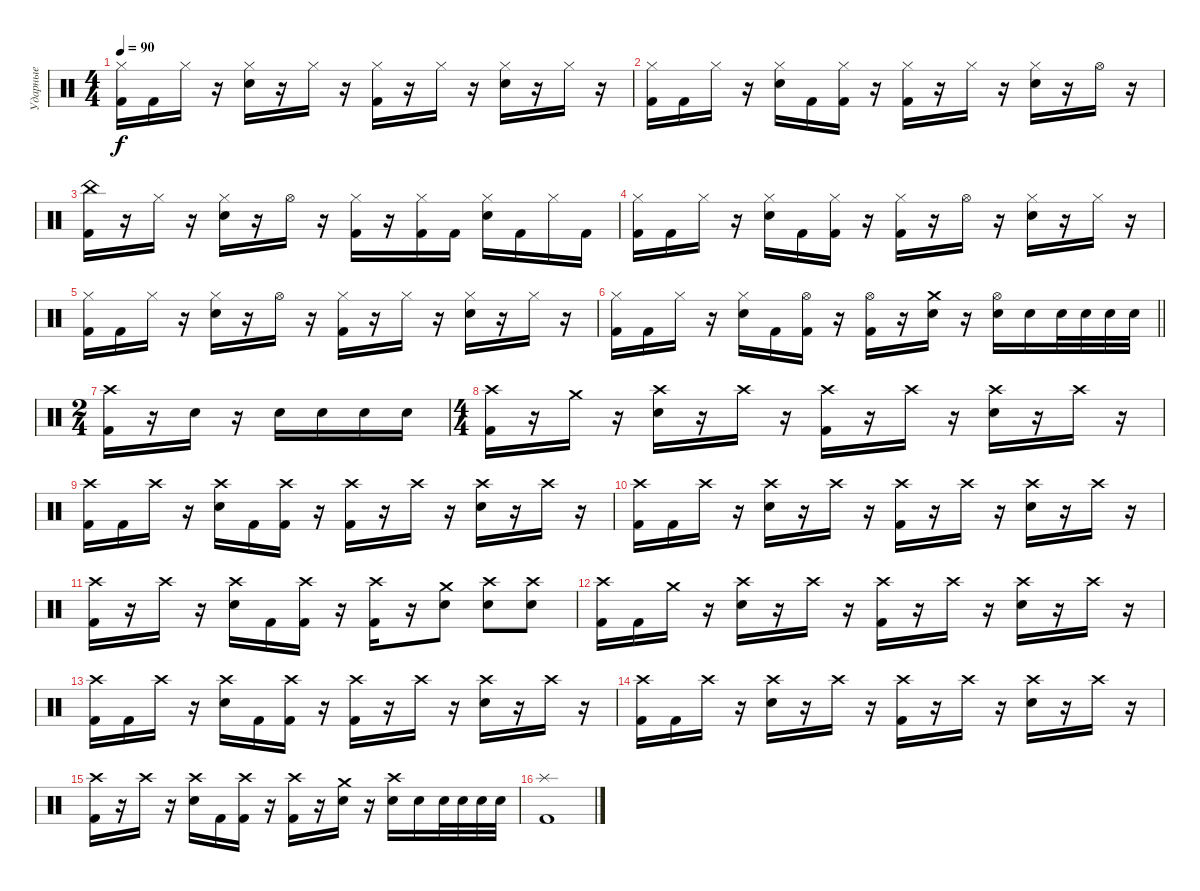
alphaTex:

\track ("Ударные" "Ударные") {instrument percussion}
\staff {score}
\articulation defaults
\ts (4 4)
\tempo 90
\clef neutral
\ks c
("Hi-Hat (closed)" "Kick (hit) 2").16{dy f} "Kick (hit) 2".16 "Hi-Hat (closed)".16 r.16 ("Hi-Hat (closed)" "Snare (hit) 2").16 r.16 "Hi-Hat (closed)".16 r.16 ("Hi-Hat (closed)" "Kick (hit) 2").16 r.16 "Hi-Hat (closed)".16 r.16 ("Hi-Hat (closed)" "Snare (hit) 2").16 r.16 "Hi-Hat (closed)".16 r.16 |
("Hi-Hat (closed)" "Kick (hit) 2").16 "Kick (hit) 2".16 "Hi-Hat (closed)".16 r.16 ("Hi-Hat (closed)" "Snare (hit) 2").16 "Kick (hit) 2".16 ("Hi-Hat (closed)" "Kick (hit) 2").16 r.16 ("Hi-Hat (closed)" "Kick (hit) 2").16 r.16 "Hi-Hat (closed)".16 r.16 ("Hi-Hat (closed)" "Snare (hit) 2").16 r.16 "Hi-Hat (open)".16 r.16 |
("China (hit)" "Kick (hit) 2").16 r.16 "Hi-Hat (closed)".16 r.16 ("Hi-Hat (closed)" "Snare (hit) 2").16 r.16 "Hi-Hat (open)".16 r.16 ("Hi-Hat (closed)" "Kick (hit) 2").16 r.16 ("Hi-Hat (closed)" "Kick (hit) 2").16 "Kick (hit) 2".16 ("Hi-Hat (closed)" "Snare (hit) 2").16 "Kick (hit) 2".16 "Hi-Hat (closed)".16 "Kick (hit) 2".16 |
("Hi-Hat (closed)" "Kick (hit) 2").16 "Kick (hit) 2".16 "Hi-Hat (closed)".16 r.16 ("Hi-Hat (closed)" "Snare (hit) 2").16 "Kick (hit) 2".16 ("Hi-Hat (closed)" "Kick (hit) 2").16 r.16 ("Hi-Hat (closed)" "Kick (hit) 2").16 r.16 "Hi-Hat (open)".16 r.16 ("Hi-Hat (closed)" "Snare (hit) 2").16 r.16 "Hi-Hat (closed)".16 r.16 |
("Hi-Hat (closed)" "Kick (hit) 2").16 "Kick (hit) 2".16 "Hi-Hat (closed)".16 r.16 ("Hi-Hat (closed)" "Snare (hit) 2").16 r.16 "Hi-Hat (open)".16 r.16 ("Hi-Hat (closed)" "Kick (hit) 2").16 r.16 "Hi-Hat (closed)".16 r.16 ("Hi-Hat (closed)" "Snare (hit) 2").16 r.16 "Hi-Hat (closed)".16 r.16 |
\barLineRight lightlight
("Hi-Hat (closed)" "Kick (hit) 2").16 "Kick (hit) 2".16 "Hi-Hat (closed)".16 r.16 ("Hi-Hat (closed)" "Snare (hit) 2").16 "Kick (hit) 2".16 ("Hi-Hat (open)" "Kick (hit) 2").16 r.16 ("Hi-Hat (open)" "Kick (hit) 2").16 r.16 ("Crash medium (hit)" "Snare (hit) 2").16 r.16 ("Hi-Hat (open)" "Snare (hit) 2").16 "Snare (hit) 2".16 "Snare (hit) 2".32 "Snare (hit) 2".32 "Snare (hit) 2".32 "Snare (hit) 2".32 |
\ts (2 4)
("Crash high (hit)" "Kick (hit) 2").16 r.16 "Snare (hit) 2".16 r.16 "Snare (hit) 2".16 "Snare (hit) 2".16 "Snare (hit) 2".16 "Snare (hit) 2".16 |
\ts (4 4)
("Crash high (hit)" "Kick (hit) 2").16 r.16 "Crash medium (hit)".16 r.16 ("Crash high (hit)" "Snare (hit) 2").16 r.16 "Crash high (hit)".16 r.16 ("Crash high (hit)" "Kick (hit) 2").16 r.16 "Crash high (hit)".16 r.16 ("Crash high (hit)" "Snare (hit) 2").16 r.16 "Crash high (hit)".16 r.16 |
("Crash high (hit)" "Kick (hit) 2").16 "Kick (hit) 2".16 "Crash high (hit)".16 r.16 ("Crash high (hit)" "Snare (hit) 2").16 "Kick (hit) 2".16 ("Crash high (hit)" "Kick (hit) 2").16 r.16 ("Crash high (hit)" "Kick (hit) 2").16 r.16 "Crash high (hit)".16 r.16 ("Crash high (hit)" "Snare (hit) 2").16 r.16 "Crash high (hit)".16 r.16 |
("Crash high (hit)" "Kick (hit) 2").16 "Kick (hit) 2".16 "Crash high (hit)".16 r.16 ("Crash high (hit)" "Snare (hit) 2").16 r.16 "Crash high (hit)".16 r.16 ("Crash high (hit)" "Kick (hit) 2").16 r.16 "Crash high (hit)".16 r.16 ("Crash high (hit)" "Snare (hit) 2").16 r.16 "Crash high (hit)".16 r.16 |
("Crash high (hit)" "Kick (hit) 2").16 r.16 "Crash high (hit)".16 r.16 ("Crash high (hit)" "Snare (hit) 2").16 "Kick (hit) 2".16 ("Crash high (hit)" "Kick (hit) 2").16 r.16 ("Crash high (hit)" "Kick (hit) 2").16 r.16 ("Crash medium (hit)" "Snare (hit) 2").8 ("Crash high (hit)" "Snare (hit) 2").8 ("Crash high (hit)" "Snare (hit) 2").8 |
("Crash high (hit)" "Kick (hit) 2").16 "Kick (hit) 2".16 "Crash medium (hit)".16 r.16 ("Crash high (hit)" "Snare (hit) 2").16 r.16 "Crash high (hit)".16 r.16 ("Crash high (hit)" "Kick (hit) 2").16 r.16 "Crash high (hit)".16 r.16 ("Crash high (hit)" "Snare (hit) 2").16 r.16 "Crash high (hit)".16 r.16 |
("Crash high (hit)" "Kick (hit) 2").16 "Kick (hit) 2".16 "Crash high (hit)".16 r.16 ("Crash high (hit)" "Snare (hit) 2").16 "Kick (hit) 2".16 ("Crash high (hit)" "Kick (hit) 2").16 r.16 ("Crash high (hit)" "Kick (hit) 2").16 r.16 "Crash high (hit)".16 r.16 ("Crash high (hit)" "Snare (hit) 2").16 r.16 "Crash high (hit)".16 r.16 |
("Crash high (hit)" "Kick (hit) 2").16 "Kick (hit) 2".16 "Crash high (hit)".16 r.16 ("Crash high (hit)" "Snare (hit) 2").16 r.16 "Crash high (hit)".16 r.16 ("Crash high (hit)" "Kick (hit) 2").16 r.16 "Crash high (hit)".16 r.16 ("Crash high (hit)" "Snare (hit) 2").16 r.16 "Crash high (hit)".16 r.16 |
("Crash high (hit)" "Kick (hit) 2").16 r.16 "Crash high (hit)".16 r.16 ("Crash high (hit)" "Snare (hit) 2").16 "Kick (hit) 2".16 ("Crash high (hit)" "Kick (hit) 2").16 r.16 ("Crash high (hit)" "Kick (hit) 2").16 r.16 ("Crash medium (hit)" "Snare (hit) 2").16 r.16 ("Crash high (hit)" "Snare (hit) 2").16 "Snare (hit) 2".16 "Snare (hit) 2".32 "Snare (hit) 2".32 "Snare (hit) 2".32 "Snare (hit) 2".32 |
("Splash (hit)" "Kick (hit) 2").1
